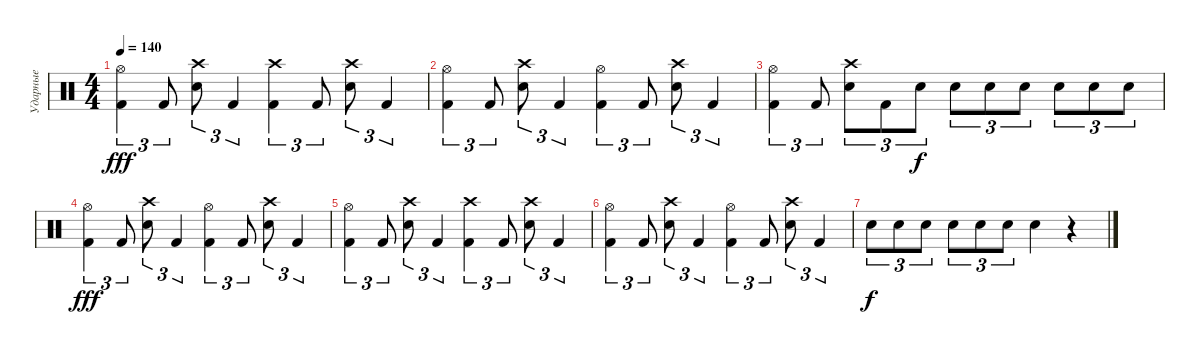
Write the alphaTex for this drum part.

\track ("Ударные" "Ударные") {instrument percussion}
\staff {score}
\articulation defaults
\ts (4 4)
\tempo 140
\clef neutral
\ks c
("Kick (hit) 2" "Hi-Hat (open)").4{tu (3 2) dy fff} "Kick (hit) 2".8{tu (3 2)} ("Snare (hit) 2" "Crash high (hit)").8{tu (3 2)} "Kick (hit) 2".4{tu (3 2)} ("Kick (hit) 2" "Crash high (hit)").4{tu (3 2)} "Kick (hit) 2".8{tu (3 2)} ("Snare (hit) 2" "Crash high (hit)").8{tu (3 2)} "Kick (hit) 2".4{tu (3 2)} |
("Kick (hit) 2" "Hi-Hat (open)").4{tu (3 2)} "Kick (hit) 2".8{tu (3 2)} ("Snare (hit) 2" "Crash high (hit)").8{tu (3 2)} "Kick (hit) 2".4{tu (3 2)} ("Kick (hit) 2" "Hi-Hat (open)").4{tu (3 2)} "Kick (hit) 2".8{tu (3 2)} ("Snare (hit) 2" "Crash high (hit)").8{tu (3 2)} "Kick (hit) 2".4{tu (3 2)} |
("Kick (hit) 2" "Hi-Hat (open)").4{tu (3 2)} "Kick (hit) 2".8{tu (3 2)} ("Snare (hit) 2" "Crash high (hit)").8{tu (3 2)} "Kick (hit) 2".8{tu (3 2)} "Snare (hit) 2".8{tu (3 2) dy f} "Snare (hit) 2".8{tu (3 2)} "Snare (hit) 2".8{tu (3 2)} "Snare (hit) 2".8{tu (3 2)} "Snare (hit) 2".8{tu (3 2)} "Snare (hit) 2".8{tu (3 2)} "Snare (hit) 2".8{tu (3 2)} |
("Kick (hit) 2" "Hi-Hat (open)").4{tu (3 2) dy fff} "Kick (hit) 2".8{tu (3 2)} ("Snare (hit) 2" "Crash high (hit)").8{tu (3 2)} "Kick (hit) 2".4{tu (3 2)} ("Kick (hit) 2" "Hi-Hat (open)").4{tu (3 2)} "Kick (hit) 2".8{tu (3 2)} ("Snare (hit) 2" "Crash high (hit)").8{tu (3 2)} "Kick (hit) 2".4{tu (3 2)} |
("Kick (hit) 2" "Hi-Hat (open)").4{tu (3 2)} "Kick (hit) 2".8{tu (3 2)} ("Snare (hit) 2" "Crash high (hit)").8{tu (3 2)} "Kick (hit) 2".4{tu (3 2)} ("Kick (hit) 2" "Crash high (hit)").4{tu (3 2)} "Kick (hit) 2".8{tu (3 2)} ("Snare (hit) 2" "Crash high (hit)").8{tu (3 2)} "Kick (hit) 2".4{tu (3 2)} |
("Kick (hit) 2" "Hi-Hat (open)").4{tu (3 2)} "Kick (hit) 2".8{tu (3 2)} ("Snare (hit) 2" "Crash high (hit)").8{tu (3 2)} "Kick (hit) 2".4{tu (3 2)} ("Kick (hit) 2" "Hi-Hat (open)").4{tu (3 2)} "Kick (hit) 2".8{tu (3 2)} ("Snare (hit) 2" "Crash high (hit)").8{tu (3 2)} "Kick (hit) 2".4{tu (3 2)} |
"Snare (hit) 2".8{tu (3 2) dy f} "Snare (hit) 2".8{tu (3 2)} "Snare (hit) 2".8{tu (3 2)} "Snare (hit) 2".8{tu (3 2)} "Snare (hit) 2".8{tu (3 2)} "Snare (hit) 2".8{tu (3 2)} "Snare (hit) 2".4 r.4
